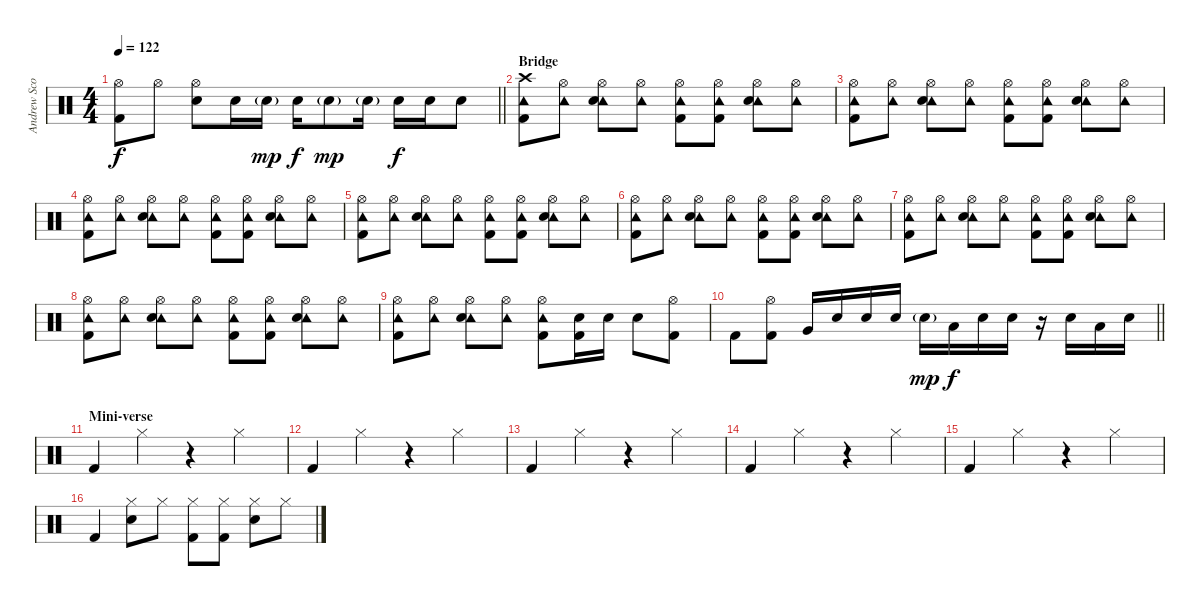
\track ("Andrew Scott" "Andrew Sco") {instrument percussion}
\staff {score}
\articulation defaults
\ts (4 4)
\section ("" "")
\tempo 122
\clef neutral
\barLineRight lightlight
\ks c
("Hi-Hat (open)" "Kick (hit) 2").8{dy f} "Hi-Hat (open)".8 ("Hi-Hat (open)" "Snare (hit) 2").8 "Snare (hit) 2".16 "Snare (hit) 2"{g}.16{dy mp} "Snare (hit) 2".16{dy f} "Snare (hit) 2"{g}.8{dy mp} "Snare (hit) 2"{g}.16 "Snare (hit) 2".16{dy f} "Snare (hit) 2".16 "Snare (hit) 2".8 |
\section ("" "Bridge")
("Crash high (hit)" "Tambourine (hit)" "Kick (hit) 2").8 ("Hi-Hat (open)" "Tambourine (hit)").8 ("Hi-Hat (open)" "Tambourine (hit)" "Snare (hit) 2").8 ("Hi-Hat (open)" "Tambourine (hit)").8 ("Hi-Hat (open)" "Tambourine (hit)" "Kick (hit) 2").8 ("Hi-Hat (open)" "Tambourine (hit)" "Kick (hit) 2").8 ("Hi-Hat (open)" "Tambourine (hit)" "Snare (hit) 2").8 ("Hi-Hat (open)" "Tambourine (hit)").8 |
("Hi-Hat (open)" "Tambourine (hit)" "Kick (hit) 2").8 ("Hi-Hat (open)" "Tambourine (hit)").8 ("Hi-Hat (open)" "Tambourine (hit)" "Snare (hit) 2").8 ("Hi-Hat (open)" "Tambourine (hit)").8 ("Hi-Hat (open)" "Tambourine (hit)" "Kick (hit) 2").8 ("Hi-Hat (open)" "Tambourine (hit)" "Kick (hit) 2").8 ("Hi-Hat (open)" "Tambourine (hit)" "Snare (hit) 2").8 ("Hi-Hat (open)" "Tambourine (hit)").8 |
("Hi-Hat (open)" "Tambourine (hit)" "Kick (hit) 2").8 ("Hi-Hat (open)" "Tambourine (hit)").8 ("Hi-Hat (open)" "Tambourine (hit)" "Snare (hit) 2").8 ("Hi-Hat (open)" "Tambourine (hit)").8 ("Hi-Hat (open)" "Tambourine (hit)" "Kick (hit) 2").8 ("Hi-Hat (open)" "Tambourine (hit)" "Kick (hit) 2").8 ("Hi-Hat (open)" "Tambourine (hit)" "Snare (hit) 2").8 ("Hi-Hat (open)" "Tambourine (hit)").8 |
("Hi-Hat (open)" "Tambourine (hit)" "Kick (hit) 2").8 ("Hi-Hat (open)" "Tambourine (hit)").8 ("Hi-Hat (open)" "Tambourine (hit)" "Snare (hit) 2").8 ("Hi-Hat (open)" "Tambourine (hit)").8 ("Hi-Hat (open)" "Tambourine (hit)" "Kick (hit) 2").8 ("Hi-Hat (open)" "Tambourine (hit)" "Kick (hit) 2").8 ("Hi-Hat (open)" "Tambourine (hit)" "Snare (hit) 2").8 ("Hi-Hat (open)" "Tambourine (hit)").8 |
("Hi-Hat (open)" "Tambourine (hit)" "Kick (hit) 2").8 ("Hi-Hat (open)" "Tambourine (hit)").8 ("Hi-Hat (open)" "Tambourine (hit)" "Snare (hit) 2").8 ("Hi-Hat (open)" "Tambourine (hit)").8 ("Hi-Hat (open)" "Tambourine (hit)" "Kick (hit) 2").8 ("Hi-Hat (open)" "Tambourine (hit)" "Kick (hit) 2").8 ("Hi-Hat (open)" "Tambourine (hit)" "Snare (hit) 2").8 ("Hi-Hat (open)" "Tambourine (hit)").8 |
("Hi-Hat (open)" "Tambourine (hit)" "Kick (hit) 2").8 ("Hi-Hat (open)" "Tambourine (hit)").8 ("Hi-Hat (open)" "Tambourine (hit)" "Snare (hit) 2").8 ("Hi-Hat (open)" "Tambourine (hit)").8 ("Hi-Hat (open)" "Tambourine (hit)" "Kick (hit) 2").8 ("Hi-Hat (open)" "Tambourine (hit)" "Kick (hit) 2").8 ("Hi-Hat (open)" "Tambourine (hit)" "Snare (hit) 2").8 ("Hi-Hat (open)" "Tambourine (hit)").8 |
("Hi-Hat (open)" "Tambourine (hit)" "Kick (hit) 2").8 ("Hi-Hat (open)" "Tambourine (hit)").8 ("Hi-Hat (open)" "Tambourine (hit)" "Snare (hit) 2").8 ("Hi-Hat (open)" "Tambourine (hit)").8 ("Hi-Hat (open)" "Tambourine (hit)" "Kick (hit) 2").8 ("Hi-Hat (open)" "Tambourine (hit)" "Kick (hit) 2").8 ("Hi-Hat (open)" "Tambourine (hit)" "Snare (hit) 2").8 ("Hi-Hat (open)" "Tambourine (hit)").8 |
("Hi-Hat (open)" "Tambourine (hit)" "Kick (hit) 2").8 ("Hi-Hat (open)" "Tambourine (hit)").8 ("Hi-Hat (open)" "Tambourine (hit)" "Snare (hit) 2").8 ("Hi-Hat (open)" "Tambourine (hit)").8 ("Hi-Hat (open)" "Tambourine (hit)" "Kick (hit) 2").8 ("Snare (hit) 2" "Kick (hit) 2").16 "Snare (hit) 2".16 "Snare (hit) 2".8 ("Hi-Hat (open)" "Kick (hit) 2").8 |
\barLineRight lightlight "Kick (hit) 2".8
("Hi-Hat (open)" "Kick (hit) 2").8 "Very Low Tom (hit)".16 "Snare (hit) 2".16 "Snare (hit) 2".16 "Snare (hit) 2".16 "Snare (hit) 2"{g}.16{dy mp} "Low Tom (hit)".16{dy f} "Snare (hit) 2".16 "Snare (hit) 2".16 r.16 "Snare (hit) 2".16 "Low Tom (hit)".16 "Snare (hit) 2".16 |
\section ("" "Mini-verse")
"Kick (hit) 2".4 "Hi-Hat (closed)".4 r.4 "Hi-Hat (closed)".4 |
"Kick (hit) 2".4 "Hi-Hat (closed)".4 r.4 "Hi-Hat (closed)".4 |
"Kick (hit) 2".4 "Hi-Hat (closed)".4 r.4 "Hi-Hat (closed)".4 |
"Kick (hit) 2".4 "Hi-Hat (closed)".4 r.4 "Hi-Hat (closed)".4 |
"Kick (hit) 2".4 "Hi-Hat (closed)".4 r.4 "Hi-Hat (closed)".4 |
"Kick (hit) 2".4 ("Hi-Hat (closed)" "Snare (hit) 2").8 "Hi-Hat (closed)".8 ("Hi-Hat (closed)" "Kick (hit) 2").8 ("Hi-Hat (closed)" "Kick (hit) 2").8 ("Hi-Hat (closed)" "Snare (hit) 2").8 "Hi-Hat (closed)".8
